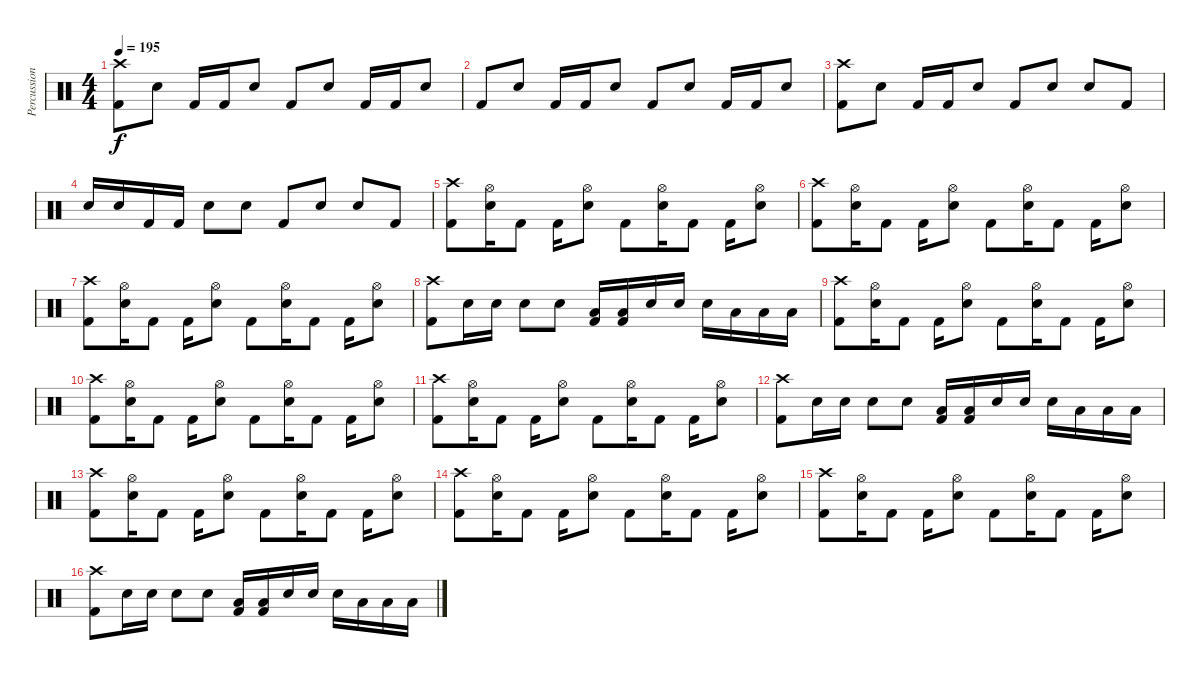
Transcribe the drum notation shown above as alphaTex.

\track ("Percussion" "Percussion") {instrument percussion}
\staff {score}
\articulation defaults
\ts (4 4)
\tempo 195
\clef neutral
\ks c
("Crash high (hit)" "Kick (hit) 2").8{dy f} "Electric Snare (hit)".8 "Kick (hit) 2".16 "Kick (hit) 2".16 "Electric Snare (hit)".8 "Kick (hit) 2".8 "Electric Snare (hit)".8 "Kick (hit) 2".16 "Kick (hit) 2".16 "Electric Snare (hit)".8 |
"Kick (hit) 2".8 "Electric Snare (hit)".8 "Kick (hit) 2".16 "Kick (hit) 2".16 "Electric Snare (hit)".8 "Kick (hit) 2".8 "Electric Snare (hit)".8 "Kick (hit) 2".16 "Kick (hit) 2".16 "Electric Snare (hit)".8 |
("Crash high (hit)" "Kick (hit) 2").8 "Electric Snare (hit)".8 "Kick (hit) 2".16 "Kick (hit) 2".16 "Electric Snare (hit)".8 "Kick (hit) 2".8 "Electric Snare (hit)".8 "Electric Snare (hit)".8 "Kick (hit) 2".8 |
"Electric Snare (hit)".16 "Electric Snare (hit)".16 "Kick (hit) 2".16 "Kick (hit) 2".16 "Electric Snare (hit)".8 "Electric Snare (hit)".8 "Kick (hit) 2".8 "Electric Snare (hit)".8 "Electric Snare (hit)".8 "Kick (hit) 2".8 |
("Crash high (hit)" "Kick (hit) 2").8 ("Hi-Hat (open)" "Electric Snare (hit)").16 "Kick (hit) 2".8 "Kick (hit) 2".16 ("Hi-Hat (open)" "Electric Snare (hit)").8 "Kick (hit) 2".8 ("Hi-Hat (open)" "Electric Snare (hit)").16 "Kick (hit) 2".8 "Kick (hit) 2".16 ("Hi-Hat (open)" "Electric Snare (hit)").8 |
("Crash high (hit)" "Kick (hit) 2").8 ("Hi-Hat (open)" "Electric Snare (hit)").16 "Kick (hit) 2".8 "Kick (hit) 2".16 ("Hi-Hat (open)" "Electric Snare (hit)").8 "Kick (hit) 2".8 ("Hi-Hat (open)" "Electric Snare (hit)").16 "Kick (hit) 2".8 "Kick (hit) 2".16 ("Hi-Hat (open)" "Electric Snare (hit)").8 |
("Crash high (hit)" "Kick (hit) 2").8 ("Hi-Hat (open)" "Electric Snare (hit)").16 "Kick (hit) 2".8 "Kick (hit) 2".16 ("Hi-Hat (open)" "Electric Snare (hit)").8 "Kick (hit) 2".8 ("Hi-Hat (open)" "Electric Snare (hit)").16 "Kick (hit) 2".8 "Kick (hit) 2".16 ("Hi-Hat (open)" "Electric Snare (hit)").8 |
("Crash high (hit)" "Kick (hit) 2").8 "Electric Snare (hit)".16 "Electric Snare (hit)".16 "Electric Snare (hit)".8 "Electric Snare (hit)".8 ("Low Tom (hit)" "Kick (hit) 2").16 ("Low Tom (hit)" "Kick (hit) 2").16 "Electric Snare (hit)".16 "Electric Snare (hit)".16 "Electric Snare (hit)".16 "Low Tom (hit)".16 "Low Tom (hit)".16 "Low Tom (hit)".16 |
("Crash high (hit)" "Kick (hit) 2").8 ("Hi-Hat (open)" "Electric Snare (hit)").16 "Kick (hit) 2".8 "Kick (hit) 2".16 ("Hi-Hat (open)" "Electric Snare (hit)").8 "Kick (hit) 2".8 ("Hi-Hat (open)" "Electric Snare (hit)").16 "Kick (hit) 2".8 "Kick (hit) 2".16 ("Hi-Hat (open)" "Electric Snare (hit)").8 |
("Crash high (hit)" "Kick (hit) 2").8 ("Hi-Hat (open)" "Electric Snare (hit)").16 "Kick (hit) 2".8 "Kick (hit) 2".16 ("Hi-Hat (open)" "Electric Snare (hit)").8 "Kick (hit) 2".8 ("Hi-Hat (open)" "Electric Snare (hit)").16 "Kick (hit) 2".8 "Kick (hit) 2".16 ("Hi-Hat (open)" "Electric Snare (hit)").8 |
("Crash high (hit)" "Kick (hit) 2").8 ("Hi-Hat (open)" "Electric Snare (hit)").16 "Kick (hit) 2".8 "Kick (hit) 2".16 ("Hi-Hat (open)" "Electric Snare (hit)").8 "Kick (hit) 2".8 ("Hi-Hat (open)" "Electric Snare (hit)").16 "Kick (hit) 2".8 "Kick (hit) 2".16 ("Hi-Hat (open)" "Electric Snare (hit)").8 |
("Crash high (hit)" "Kick (hit) 2").8 "Electric Snare (hit)".16 "Electric Snare (hit)".16 "Electric Snare (hit)".8 "Electric Snare (hit)".8 ("Low Tom (hit)" "Kick (hit) 2").16 ("Low Tom (hit)" "Kick (hit) 2").16 "Electric Snare (hit)".16 "Electric Snare (hit)".16 "Electric Snare (hit)".16 "Low Tom (hit)".16 "Low Tom (hit)".16 "Low Tom (hit)".16 |
("Crash high (hit)" "Kick (hit) 2").8 ("Hi-Hat (open)" "Electric Snare (hit)").16 "Kick (hit) 2".8 "Kick (hit) 2".16 ("Hi-Hat (open)" "Electric Snare (hit)").8 "Kick (hit) 2".8 ("Hi-Hat (open)" "Electric Snare (hit)").16 "Kick (hit) 2".8 "Kick (hit) 2".16 ("Hi-Hat (open)" "Electric Snare (hit)").8 |
("Crash high (hit)" "Kick (hit) 2").8 ("Hi-Hat (open)" "Electric Snare (hit)").16 "Kick (hit) 2".8 "Kick (hit) 2".16 ("Hi-Hat (open)" "Electric Snare (hit)").8 "Kick (hit) 2".8 ("Hi-Hat (open)" "Electric Snare (hit)").16 "Kick (hit) 2".8 "Kick (hit) 2".16 ("Hi-Hat (open)" "Electric Snare (hit)").8 |
("Crash high (hit)" "Kick (hit) 2").8 ("Hi-Hat (open)" "Electric Snare (hit)").16 "Kick (hit) 2".8 "Kick (hit) 2".16 ("Hi-Hat (open)" "Electric Snare (hit)").8 "Kick (hit) 2".8 ("Hi-Hat (open)" "Electric Snare (hit)").16 "Kick (hit) 2".8 "Kick (hit) 2".16 ("Hi-Hat (open)" "Electric Snare (hit)").8 |
("Crash high (hit)" "Kick (hit) 2").8 "Electric Snare (hit)".16 "Electric Snare (hit)".16 "Electric Snare (hit)".8 "Electric Snare (hit)".8 ("Low Tom (hit)" "Kick (hit) 2").16 ("Low Tom (hit)" "Kick (hit) 2").16 "Electric Snare (hit)".16 "Electric Snare (hit)".16 "Electric Snare (hit)".16 "Low Tom (hit)".16 "Low Tom (hit)".16 "Low Tom (hit)".16
